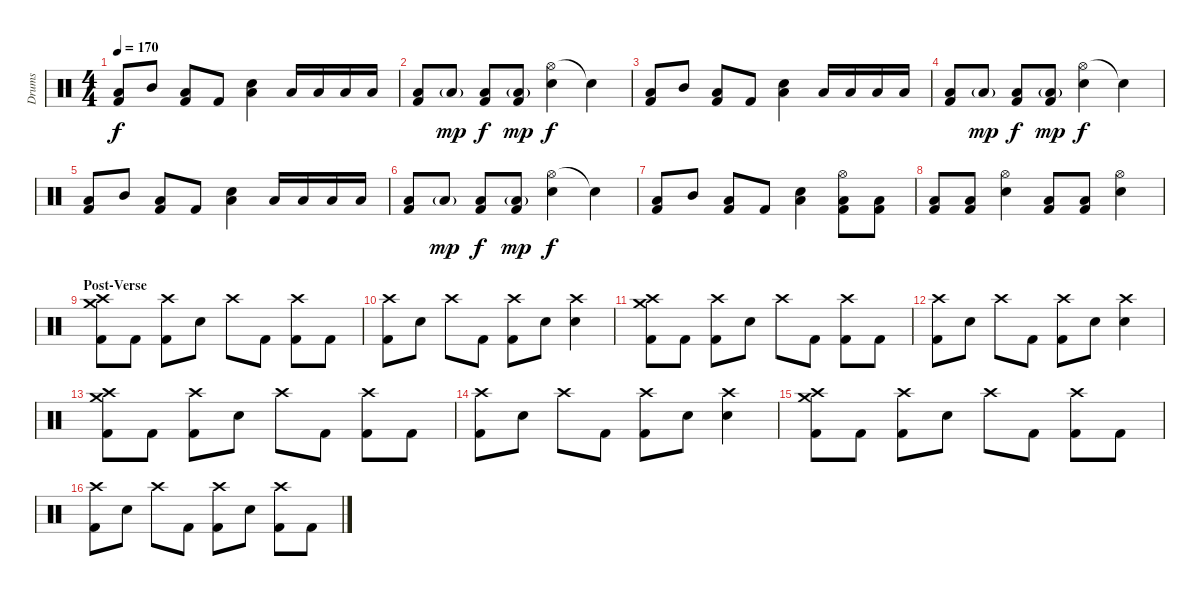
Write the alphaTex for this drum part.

\track ("Drums" "Drums") {instrument percussion}
\staff {score}
\articulation defaults
\ts (4 4)
\tempo 170
\clef neutral
\ks c
("Low Floor Tom (hit)" "Kick (hit) 2").8{dy f} "Mid Tom (hit)".8 ("Low Floor Tom (hit)" "Kick (hit) 2").8 "Kick (hit) 2".8 ("Low Floor Tom (hit)" "Snare (hit) 2").4 "Low Floor Tom (hit)".16 "Low Floor Tom (hit)".16 "Low Floor Tom (hit)".16 "Low Floor Tom (hit)".16 |
("Low Floor Tom (hit)" "Kick (hit) 2").8 "Low Floor Tom (hit)"{g}.8{dy mp} ("Low Floor Tom (hit)" "Kick (hit) 2").8{dy f} ("Low Floor Tom (hit)"{g} "Kick (hit) 2").8{dy mp} ("Hi-Hat (open)" "Snare (hit) 2").4{dy f} "Snare (hit)"{t}.4 |
("Low Floor Tom (hit)" "Kick (hit) 2").8 "Mid Tom (hit)".8 ("Low Floor Tom (hit)" "Kick (hit) 2").8 "Kick (hit) 2".8 ("Low Floor Tom (hit)" "Snare (hit) 2").4 "Low Floor Tom (hit)".16 "Low Floor Tom (hit)".16 "Low Floor Tom (hit)".16 "Low Floor Tom (hit)".16 |
("Low Floor Tom (hit)" "Kick (hit) 2").8 "Low Floor Tom (hit)"{g}.8{dy mp} ("Low Floor Tom (hit)" "Kick (hit) 2").8{dy f} ("Low Floor Tom (hit)"{g} "Kick (hit) 2").8{dy mp} ("Hi-Hat (open)" "Snare (hit) 2").4{dy f} "Snare (hit)"{t}.4 |
("Low Floor Tom (hit)" "Kick (hit) 2").8 "Mid Tom (hit)".8 ("Low Floor Tom (hit)" "Kick (hit) 2").8 "Kick (hit) 2".8 ("Low Floor Tom (hit)" "Snare (hit) 2").4 "Low Floor Tom (hit)".16 "Low Floor Tom (hit)".16 "Low Floor Tom (hit)".16 "Low Floor Tom (hit)".16 |
("Low Floor Tom (hit)" "Kick (hit) 2").8 "Low Floor Tom (hit)"{g}.8{dy mp} ("Low Floor Tom (hit)" "Kick (hit) 2").8{dy f} ("Low Floor Tom (hit)"{g} "Kick (hit) 2").8{dy mp} ("Hi-Hat (open)" "Snare (hit) 2").4{dy f} "Snare (hit)"{t}.4 |
("Low Floor Tom (hit)" "Kick (hit) 2").8 "Mid Tom (hit)".8 ("Low Floor Tom (hit)" "Kick (hit) 2").8 "Kick (hit) 2".8 ("Low Floor Tom (hit)" "Snare (hit) 2").4 ("Hi-Hat (open)" "Low Floor Tom (hit)" "Kick (hit) 2").8 ("Low Floor Tom (hit)" "Kick (hit) 2").8 |
("Low Floor Tom (hit)" "Kick (hit) 2").8 ("Low Floor Tom (hit)" "Kick (hit) 2").8 ("Hi-Hat (open)" "Snare (hit) 2").4 ("Low Floor Tom (hit)" "Kick (hit) 2").8 ("Low Floor Tom (hit)" "Kick (hit) 2").8 ("Hi-Hat (open)" "Snare (hit) 2").4 |
\section ("" "Post-Verse")
("Crash medium (hit)" "Crash high (hit)" "Kick (hit) 2").8 "Kick (hit) 2".8 ("Crash high (hit)" "Kick (hit) 2").8 "Snare (hit) 2".8 "Crash high (hit)".8 "Kick (hit) 2".8 ("Crash high (hit)" "Kick (hit) 2").8 "Kick (hit) 2".8 |
("Crash high (hit)" "Kick (hit) 2").8 "Snare (hit) 2".8 "Crash high (hit)".8 "Kick (hit) 2".8 ("Crash high (hit)" "Kick (hit) 2").8 "Snare (hit) 2".8 ("Crash high (hit)" "Snare (hit) 2").4 |
("Crash medium (hit)" "Crash high (hit)" "Kick (hit) 2").8 "Kick (hit) 2".8 ("Crash high (hit)" "Kick (hit) 2").8 "Snare (hit) 2".8 "Crash high (hit)".8 "Kick (hit) 2".8 ("Crash high (hit)" "Kick (hit) 2").8 "Kick (hit) 2".8 |
("Crash high (hit)" "Kick (hit) 2").8 "Snare (hit) 2".8 "Crash high (hit)".8 "Kick (hit) 2".8 ("Crash high (hit)" "Kick (hit) 2").8 "Snare (hit) 2".8 ("Crash high (hit)" "Snare (hit) 2").4 |
("Crash medium (hit)" "Crash high (hit)" "Kick (hit) 2").8 "Kick (hit) 2".8 ("Crash high (hit)" "Kick (hit) 2").8 "Snare (hit) 2".8 "Crash high (hit)".8 "Kick (hit) 2".8 ("Crash high (hit)" "Kick (hit) 2").8 "Kick (hit) 2".8 |
("Crash high (hit)" "Kick (hit) 2").8 "Snare (hit) 2".8 "Crash high (hit)".8 "Kick (hit) 2".8 ("Crash high (hit)" "Kick (hit) 2").8 "Snare (hit) 2".8 ("Crash high (hit)" "Snare (hit) 2").4 |
("Crash medium (hit)" "Crash high (hit)" "Kick (hit) 2").8 "Kick (hit) 2".8 ("Crash high (hit)" "Kick (hit) 2").8 "Snare (hit) 2".8 "Crash high (hit)".8 "Kick (hit) 2".8 ("Crash high (hit)" "Kick (hit) 2").8 "Kick (hit) 2".8 |
("Crash high (hit)" "Kick (hit) 2").8 "Snare (hit) 2".8 "Crash high (hit)".8 "Kick (hit) 2".8 ("Crash high (hit)" "Kick (hit) 2").8 "Snare (hit) 2".8 ("Crash high (hit)" "Kick (hit) 2").8 "Kick (hit) 2".8
